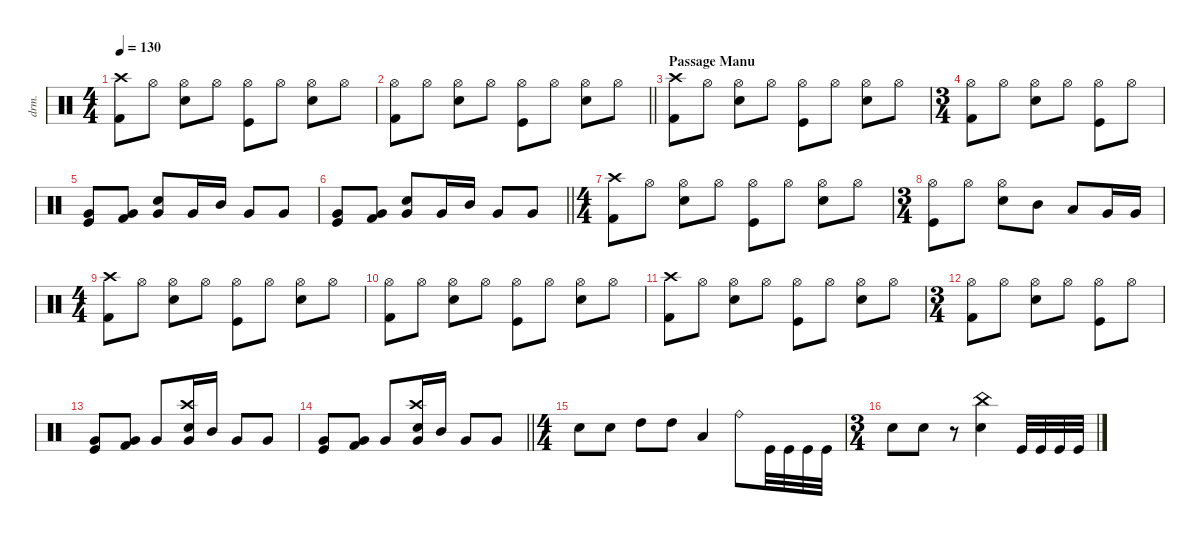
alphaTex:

\defaultSystemsLayout 4
\hideDynamics
\bracketExtendMode nobrackets
\otherSystemsTrackNameOrientation horizontal
\track ("Manouche" "drm.") {instrument percussion}
\staff {score}
\articulation defaults
\ts (4 4)
\beaming (8 2 2 2 2)
\tempo 130
\clef neutral
\ks c
("Kick (hit) 2" "Crash high (hit)").8{dy f beam Down} "Hi-Hat (open)".8{dy mp beam Down} ("Hi-Hat (open)" "Snare (hit) 2").8{dy f beam Down} "Hi-Hat (open)".8{dy mp beam Down} ("Hi-Hat (open)" "Kick (hit)").8{dy f beam Down} "Hi-Hat (open)".8{dy mp beam Down} ("Hi-Hat (open)" "Snare (hit) 2").8{dy f beam Down} "Hi-Hat (open)".8{dy mp beam Down} |
\barLineRight lightlight
("Hi-Hat (open)" "Kick (hit) 2").8{dy f beam Down} "Hi-Hat (open)".8{dy mp beam Down} ("Hi-Hat (open)" "Snare (hit) 2").8{dy f beam Down} "Hi-Hat (open)".8{dy mp beam Down} ("Hi-Hat (open)" "Kick (hit)").8{dy f beam Down} "Hi-Hat (open)".8{dy mp beam Down} ("Hi-Hat (open)" "Snare (hit) 2").8{dy f beam Down} "Hi-Hat (open)".8{dy mp beam Down} |
\section ("" "Passage Manu")
("Kick (hit) 2" "Crash high (hit)").8{dy f beam Down} "Hi-Hat (open)".8{dy mp beam Down} ("Hi-Hat (open)" "Snare (hit) 2").8{dy f beam Down} "Hi-Hat (open)".8{dy mp beam Down} ("Hi-Hat (open)" "Kick (hit)").8{dy f beam Down} "Hi-Hat (open)".8{dy mp beam Down} ("Hi-Hat (open)" "Snare (hit) 2").8{dy f beam Down} "Hi-Hat (open)".8{dy mp beam Down} |
\ts (3 4)
\beaming (8 2 2 2 2)
("Hi-Hat (open)" "Kick (hit) 2").8{dy f beam Down} "Hi-Hat (open)".8{dy mp beam Down} ("Hi-Hat (open)" "Snare (hit) 2").8{dy f beam Down} "Hi-Hat (open)".8{dy mp beam Down} ("Hi-Hat (open)" "Kick (hit)").8{dy f beam Down} "Hi-Hat (open)".8{dy mp beam Down} |
\beaming (8 2 2 2)
("Kick (hit)" "Very Low Tom (hit)").8{dy f beam Up} ("Very Low Tom (hit)" "Kick (hit) 2").8{beam Up} ("Very Low Tom (hit)" "Snare (hit) 2").8{beam Up} "Very Low Tom (hit)".16{beam Up} "Mid Tom (hit)".16{beam Up} "Very Low Tom (hit)".8{beam Up} "Very Low Tom (hit)".8{beam Up} |
\barLineRight lightlight
("Kick (hit)" "Very Low Tom (hit)").8{beam Up} ("Very Low Tom (hit)" "Kick (hit) 2").8{beam Up} ("Very Low Tom (hit)" "Snare (hit) 2").8{beam Up} "Very Low Tom (hit)".16{beam Up} "Mid Tom (hit)".16{beam Up} "Very Low Tom (hit)".8{beam Up} "Very Low Tom (hit)".8{beam Up} |
\ts (4 4)
\beaming (8 2 2 2 2)
("Crash high (hit)" "Kick (hit) 2").8{dy fff beam Down} "Hi-Hat (open)".8{dy mp beam Down} ("Hi-Hat (open)" "Snare (hit) 2").8{dy f beam Down} "Hi-Hat (open)".8{dy mp beam Down} ("Hi-Hat (open)" "Kick (hit)").8{dy f beam Down} "Hi-Hat (open)".8{dy mp beam Down} ("Hi-Hat (open)" "Snare (hit) 2").8{dy f beam Down} "Hi-Hat (open)".8{dy mp beam Down} |
\ts (3 4)
\beaming (8 2 2 2)
("Hi-Hat (open)" "Kick (hit)").8{dy f beam Down} "Hi-Hat (open)".8{dy mp beam Down} ("Hi-Hat (open)" "Snare (hit) 2").8{dy f beam Down} "Mid Tom (hit)".8{beam Down} "Low Tom (hit)".8{beam Up} "Very Low Tom (hit)".16{beam Up} "Very Low Tom (hit)".16{beam Up} |
\ts (4 4)
\beaming (8 2 2 2 2)
("Kick (hit) 2" "Crash high (hit)").8{beam Down} "Hi-Hat (open)".8{dy mp beam Down} ("Hi-Hat (open)" "Snare (hit) 2").8{dy f beam Down} "Hi-Hat (open)".8{dy mp beam Down} ("Hi-Hat (open)" "Kick (hit)").8{dy f beam Down} "Hi-Hat (open)".8{dy mp beam Down} ("Hi-Hat (open)" "Snare (hit) 2").8{dy f beam Down} "Hi-Hat (open)".8{dy mp beam Down} |
("Hi-Hat (open)" "Kick (hit) 2").8{dy f beam Down} "Hi-Hat (open)".8{dy mp beam Down} ("Hi-Hat (open)" "Snare (hit) 2").8{dy f beam Down} "Hi-Hat (open)".8{dy mp beam Down} ("Hi-Hat (open)" "Kick (hit)").8{dy f beam Down} "Hi-Hat (open)".8{dy mp beam Down} ("Hi-Hat (open)" "Snare (hit) 2").8{dy f beam Down} "Hi-Hat (open)".8{dy mp beam Down} |
("Kick (hit) 2" "Crash high (hit)").8{dy f beam Down} "Hi-Hat (open)".8{dy mp beam Down} ("Hi-Hat (open)" "Snare (hit) 2").8{dy f beam Down} "Hi-Hat (open)".8{dy mp beam Down} ("Hi-Hat (open)" "Kick (hit)").8{dy f beam Down} "Hi-Hat (open)".8{dy mp beam Down} ("Hi-Hat (open)" "Snare (hit) 2").8{dy f beam Down} "Hi-Hat (open)".8{dy mp beam Down} |
\ts (3 4)
\beaming (8 2 2 2)
("Hi-Hat (open)" "Kick (hit) 2").8{dy f beam Down} "Hi-Hat (open)".8{dy mp beam Down} ("Hi-Hat (open)" "Snare (hit) 2").8{dy f beam Down} "Hi-Hat (open)".8{dy mp beam Down} ("Hi-Hat (open)" "Kick (hit)").8{dy f beam Down} "Hi-Hat (open)".8{dy mp beam Down} |
("Kick (hit)" "Very Low Tom (hit)").8{dy f beam Up} ("Very Low Tom (hit)" "Kick (hit) 2").8{beam Up} "Very Low Tom (hit)".8{beam Up} ("Very Low Tom (hit)" "Crash high (hit)" "Snare (hit) 2").16{beam Up} "Mid Tom (hit)".16{beam Up} "Very Low Tom (hit)".8{beam Up} "Very Low Tom (hit)".8{beam Up} |
\barLineRight lightlight
("Kick (hit)" "Very Low Tom (hit)").8{beam Up} ("Very Low Tom (hit)" "Kick (hit) 2").8{beam Up} "Very Low Tom (hit)".8{beam Up} ("Very Low Tom (hit)" "Crash high (hit)" "Snare (hit) 2").16{beam Up} "Mid Tom (hit)".16{beam Up} "Very Low Tom (hit)".8{beam Up} "Very Low Tom (hit)".8{beam Up} |
\ts (4 4)
\beaming (8 2 2 2 2)
"Snare (hit) 2".8{beam Down} "Snare (hit) 2".8{beam Down} "High Tom (hit)".8{beam Down} "High Tom (hit)".8{beam Down} "Low Tom (hit)".4{beam Up} "Ride (bell)".8{beam Down} "Kick (hit)".32{beam Down} "Kick (hit)".32{beam Down} "Kick (hit)".32{beam Down} "Kick (hit)".32{beam Down} |
\ts (3 4)
\beaming (8 2 2 2)
"Snare (hit) 2".8{beam Down} "Snare (hit) 2".8{beam Down} r.8{beam Down} ("Snare (hit) 2" "China (hit)").4{beam Down} "Kick (hit)".32{beam Up} "Kick (hit)".32{beam Up} "Kick (hit)".32{beam Up} "Kick (hit)".32{beam Up}
